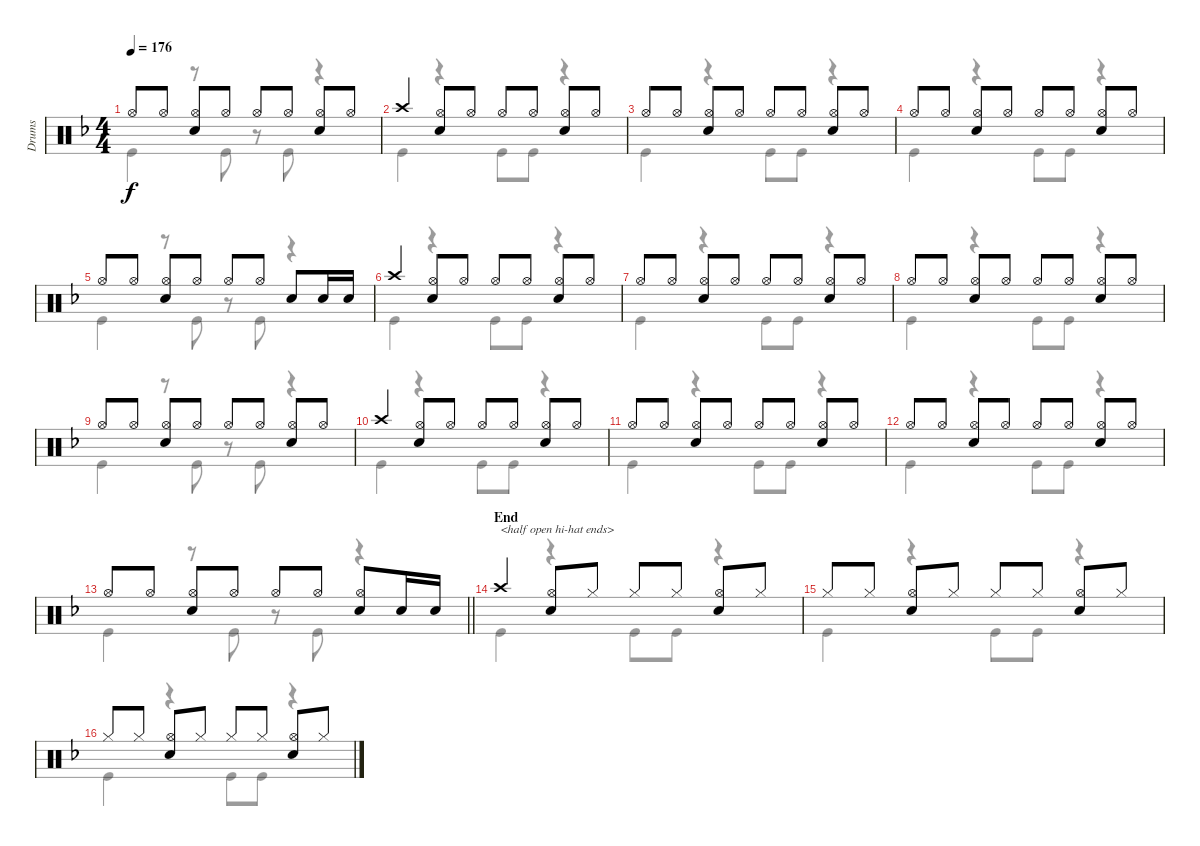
\track ("Drums" "Drums") {instrument percussion}
\staff {score}
\articulation defaults
\voice
\ts (4 4)
\tempo 176
\clef neutral
\ks f "Hi-Hat (open)".8{dy f} "Hi-Hat (open)".8
("Hi-Hat (open)" "Snare (hit) 2").8 "Hi-Hat (open)".8 "Hi-Hat (open)".8 "Hi-Hat (open)".8 ("Hi-Hat (open)" "Snare (hit) 2").8 "Hi-Hat (open)".8 |
"Crash high (hit)".4 ("Hi-Hat (open)" "Snare (hit) 2").8 "Hi-Hat (open)".8 "Hi-Hat (open)".8 "Hi-Hat (open)".8 ("Hi-Hat (open)" "Snare (hit) 2").8 "Hi-Hat (open)".8 |
"Hi-Hat (open)".8 "Hi-Hat (open)".8 ("Hi-Hat (open)" "Snare (hit) 2").8 "Hi-Hat (open)".8 "Hi-Hat (open)".8 "Hi-Hat (open)".8 ("Hi-Hat (open)" "Snare (hit) 2").8 "Hi-Hat (open)".8 |
"Hi-Hat (open)".8 "Hi-Hat (open)".8 ("Hi-Hat (open)" "Snare (hit) 2").8 "Hi-Hat (open)".8 "Hi-Hat (open)".8 "Hi-Hat (open)".8 ("Hi-Hat (open)" "Snare (hit) 2").8 "Hi-Hat (open)".8 |
"Hi-Hat (open)".8 "Hi-Hat (open)".8 ("Hi-Hat (open)" "Snare (hit) 2").8 "Hi-Hat (open)".8 "Hi-Hat (open)".8 "Hi-Hat (open)".8 "Snare (hit) 2".8 "Snare (hit) 2".16 "Snare (hit) 2".16 |
"Crash high (hit)".4 ("Hi-Hat (open)" "Snare (hit) 2").8 "Hi-Hat (open)".8 "Hi-Hat (open)".8 "Hi-Hat (open)".8 ("Hi-Hat (open)" "Snare (hit) 2").8 "Hi-Hat (open)".8 |
"Hi-Hat (open)".8 "Hi-Hat (open)".8 ("Hi-Hat (open)" "Snare (hit) 2").8 "Hi-Hat (open)".8 "Hi-Hat (open)".8 "Hi-Hat (open)".8 ("Hi-Hat (open)" "Snare (hit) 2").8 "Hi-Hat (open)".8 |
"Hi-Hat (open)".8 "Hi-Hat (open)".8 ("Hi-Hat (open)" "Snare (hit) 2").8 "Hi-Hat (open)".8 "Hi-Hat (open)".8 "Hi-Hat (open)".8 ("Hi-Hat (open)" "Snare (hit) 2").8 "Hi-Hat (open)".8 |
"Hi-Hat (open)".8 "Hi-Hat (open)".8 ("Hi-Hat (open)" "Snare (hit) 2").8 "Hi-Hat (open)".8 "Hi-Hat (open)".8 "Hi-Hat (open)".8 ("Hi-Hat (open)" "Snare (hit) 2").8 "Hi-Hat (open)".8 |
"Crash high (hit)".4 ("Hi-Hat (open)" "Snare (hit) 2").8 "Hi-Hat (open)".8 "Hi-Hat (open)".8 "Hi-Hat (open)".8 ("Hi-Hat (open)" "Snare (hit) 2").8 "Hi-Hat (open)".8 |
"Hi-Hat (open)".8 "Hi-Hat (open)".8 ("Hi-Hat (open)" "Snare (hit) 2").8 "Hi-Hat (open)".8 "Hi-Hat (open)".8 "Hi-Hat (open)".8 ("Hi-Hat (open)" "Snare (hit) 2").8 "Hi-Hat (open)".8 |
"Hi-Hat (open)".8 "Hi-Hat (open)".8 ("Hi-Hat (open)" "Snare (hit) 2").8 "Hi-Hat (open)".8 "Hi-Hat (open)".8 "Hi-Hat (open)".8 ("Hi-Hat (open)" "Snare (hit) 2").8 "Hi-Hat (open)".8 |
\barLineRight lightlight "Hi-Hat (open)".8 "Hi-Hat (open)".8
("Hi-Hat (open)" "Snare (hit) 2").8 "Hi-Hat (open)".8 "Hi-Hat (open)".8 "Hi-Hat (open)".8 ("Hi-Hat (open)" "Snare (hit) 2").8 "Snare (hit) 2".16 "Snare (hit) 2".16 |
\section ("" "End")
"Crash high (hit)".4{txt "<half open hi-hat ends>"} ("Hi-Hat (open)" "Snare (hit) 2").8 "Hi-Hat (closed)".8 "Hi-Hat (closed)".8 "Hi-Hat (closed)".8 ("Hi-Hat (open)" "Snare (hit) 2").8 "Hi-Hat (closed)".8 |
"Hi-Hat (closed)".8 "Hi-Hat (closed)".8 ("Hi-Hat (open)" "Snare (hit) 2").8 "Hi-Hat (closed)".8 "Hi-Hat (closed)".8 "Hi-Hat (closed)".8 ("Hi-Hat (open)" "Snare (hit) 2").8 "Hi-Hat (closed)".8 |
"Hi-Hat (closed)".8 "Hi-Hat (closed)".8 ("Hi-Hat (open)" "Snare (hit) 2").8 "Hi-Hat (closed)".8 "Hi-Hat (closed)".8 "Hi-Hat (closed)".8 ("Hi-Hat (open)" "Snare (hit) 2").8 "Hi-Hat (closed)".8
\voice
\clef neutral
\ottava regular
\simile none
\ks f "Kick (hit)".4{dy f}
r.8 "Kick (hit)".8 r.8 "Kick (hit)".8 r.4 |
"Kick (hit)".4 r.4 "Kick (hit)".8 "Kick (hit)".8 r.4 |
"Kick (hit)".4 r.4 "Kick (hit)".8 "Kick (hit)".8 r.4 |
"Kick (hit)".4 r.4 "Kick (hit)".8 "Kick (hit)".8 r.4 |
"Kick (hit)".4 r.8 "Kick (hit)".8 r.8 "Kick (hit)".8 r.4 |
"Kick (hit)".4 r.4 "Kick (hit)".8 "Kick (hit)".8 r.4 |
"Kick (hit)".4 r.4 "Kick (hit)".8 "Kick (hit)".8 r.4 |
"Kick (hit)".4 r.4 "Kick (hit)".8 "Kick (hit)".8 r.4 |
"Kick (hit)".4 r.8 "Kick (hit)".8 r.8 "Kick (hit)".8 r.4 |
"Kick (hit)".4 r.4 "Kick (hit)".8 "Kick (hit)".8 r.4 |
"Kick (hit)".4 r.4 "Kick (hit)".8 "Kick (hit)".8 r.4 |
"Kick (hit)".4 r.4 "Kick (hit)".8 "Kick (hit)".8 r.4 |
\barLineRight lightlight "Kick (hit)".4
r.8 "Kick (hit)".8 r.8 "Kick (hit)".8 r.4 |
"Kick (hit)".4 r.4 "Kick (hit)".8 "Kick (hit)".8 r.4 |
"Kick (hit)".4 r.4 "Kick (hit)".8 "Kick (hit)".8 r.4 |
"Kick (hit)".4 r.4 "Kick (hit)".8 "Kick (hit)".8 r.4
